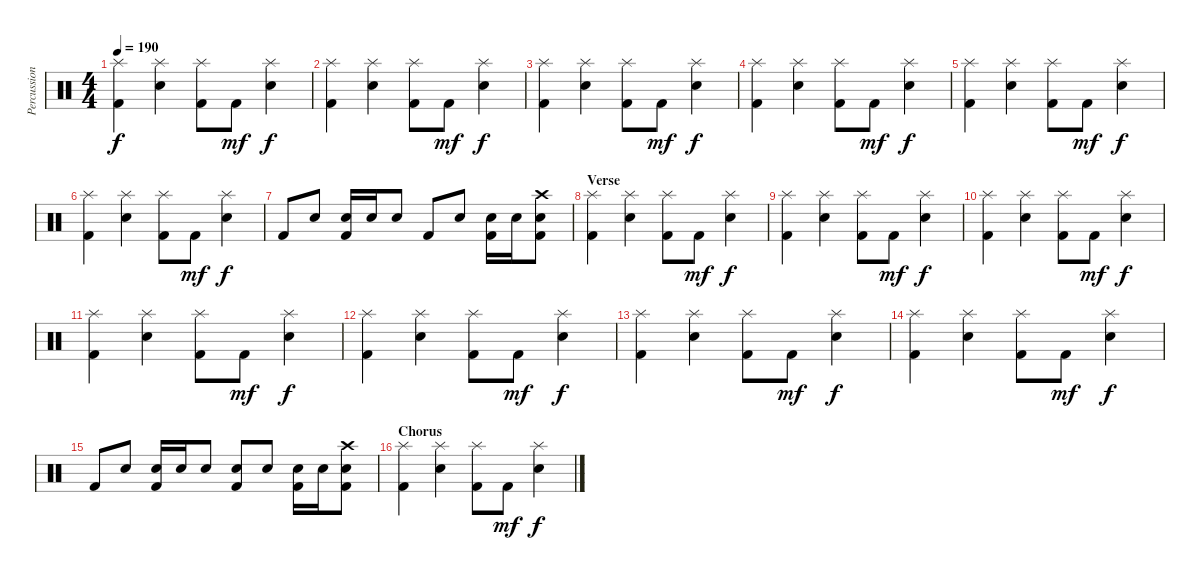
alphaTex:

\track ("Percussion" "Percussion") {instrument percussion}
\staff {score}
\articulation defaults
\ts (4 4)
\tempo 190
\clef neutral
\ks c
("Splash (hit)" "Kick (hit) 2").4{dy f} ("Splash (hit)" "Electric Snare (hit)").4 ("Splash (hit)" "Kick (hit) 2").8 "Kick (hit) 2".8{dy mf} ("Splash (hit)" "Electric Snare (hit)").4{dy f} |
("Splash (hit)" "Kick (hit) 2").4 ("Splash (hit)" "Electric Snare (hit)").4 ("Splash (hit)" "Kick (hit) 2").8 "Kick (hit) 2".8{dy mf} ("Splash (hit)" "Electric Snare (hit)").4{dy f} |
("Splash (hit)" "Kick (hit) 2").4 ("Splash (hit)" "Electric Snare (hit)").4 ("Splash (hit)" "Kick (hit) 2").8 "Kick (hit) 2".8{dy mf} ("Splash (hit)" "Electric Snare (hit)").4{dy f} |
("Splash (hit)" "Kick (hit) 2").4 ("Splash (hit)" "Electric Snare (hit)").4 ("Splash (hit)" "Kick (hit) 2").8 "Kick (hit) 2".8{dy mf} ("Splash (hit)" "Electric Snare (hit)").4{dy f} |
("Splash (hit)" "Kick (hit) 2").4 ("Splash (hit)" "Electric Snare (hit)").4 ("Splash (hit)" "Kick (hit) 2").8 "Kick (hit) 2".8{dy mf} ("Splash (hit)" "Electric Snare (hit)").4{dy f} |
("Splash (hit)" "Kick (hit) 2").4 ("Splash (hit)" "Electric Snare (hit)").4 ("Splash (hit)" "Kick (hit) 2").8 "Kick (hit) 2".8{dy mf} ("Splash (hit)" "Electric Snare (hit)").4{dy f} |
"Kick (hit) 2".8 "Electric Snare (hit)".8 ("Electric Snare (hit)" "Kick (hit) 2").16 "Electric Snare (hit)".16 "Electric Snare (hit)".8 "Kick (hit) 2".8 "Electric Snare (hit)".8 ("Electric Snare (hit)" "Kick (hit) 2").16 "Electric Snare (hit)".16 ("Crash high (hit)" "Electric Snare (hit)" "Kick (hit) 2").8 |
\section ("" "Verse")
("Splash (hit)" "Kick (hit) 2").4 ("Splash (hit)" "Electric Snare (hit)").4 ("Splash (hit)" "Kick (hit) 2").8 "Kick (hit) 2".8{dy mf} ("Splash (hit)" "Electric Snare (hit)").4{dy f} |
("Splash (hit)" "Kick (hit) 2").4 ("Splash (hit)" "Electric Snare (hit)").4 ("Splash (hit)" "Kick (hit) 2").8 "Kick (hit) 2".8{dy mf} ("Splash (hit)" "Electric Snare (hit)").4{dy f} |
("Splash (hit)" "Kick (hit) 2").4 ("Splash (hit)" "Electric Snare (hit)").4 ("Splash (hit)" "Kick (hit) 2").8 "Kick (hit) 2".8{dy mf} ("Splash (hit)" "Electric Snare (hit)").4{dy f} |
("Splash (hit)" "Kick (hit) 2").4 ("Splash (hit)" "Electric Snare (hit)").4 ("Splash (hit)" "Kick (hit) 2").8 "Kick (hit) 2".8{dy mf} ("Splash (hit)" "Electric Snare (hit)").4{dy f} |
("Splash (hit)" "Kick (hit) 2").4 ("Splash (hit)" "Electric Snare (hit)").4 ("Splash (hit)" "Kick (hit) 2").8 "Kick (hit) 2".8{dy mf} ("Splash (hit)" "Electric Snare (hit)").4{dy f} |
("Splash (hit)" "Kick (hit) 2").4 ("Splash (hit)" "Electric Snare (hit)").4 ("Splash (hit)" "Kick (hit) 2").8 "Kick (hit) 2".8{dy mf} ("Splash (hit)" "Electric Snare (hit)").4{dy f} |
("Splash (hit)" "Kick (hit) 2").4 ("Splash (hit)" "Electric Snare (hit)").4 ("Splash (hit)" "Kick (hit) 2").8 "Kick (hit) 2".8{dy mf} ("Splash (hit)" "Electric Snare (hit)").4{dy f} |
"Kick (hit) 2".8 "Electric Snare (hit)".8 ("Electric Snare (hit)" "Kick (hit) 2").16 "Electric Snare (hit)".16 "Electric Snare (hit)".8 ("Electric Snare (hit)" "Kick (hit) 2").8 "Electric Snare (hit)".8 ("Electric Snare (hit)" "Kick (hit) 2").16 "Electric Snare (hit)".16 ("Crash high (hit)" "Electric Snare (hit)" "Kick (hit) 2").8 |
\section ("" "Chorus")
("Splash (hit)" "Kick (hit) 2").4 ("Splash (hit)" "Electric Snare (hit)").4 ("Splash (hit)" "Kick (hit) 2").8 "Kick (hit) 2".8{dy mf} ("Splash (hit)" "Electric Snare (hit)").4{dy f}
